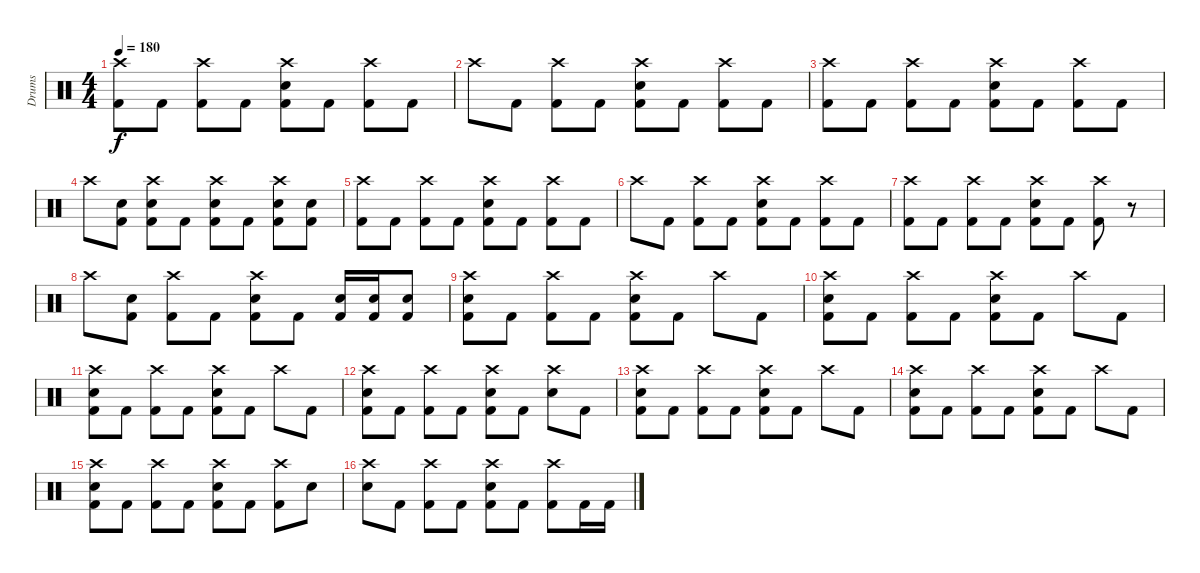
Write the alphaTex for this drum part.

\track ("Drums" "Drums") {instrument percussion}
\staff {score}
\articulation defaults
\ts (4 4)
\tempo 180
\clef neutral
\ks c
("Crash high (hit)" "Kick (hit) 2").8{dy f} "Kick (hit) 2".8 ("Crash high (hit)" "Kick (hit) 2").8 "Kick (hit) 2".8 ("Crash high (hit)" "Electric Snare (hit)" "Kick (hit) 2").8 "Kick (hit) 2".8 ("Crash high (hit)" "Kick (hit) 2").8 "Kick (hit) 2".8 |
"Crash high (hit)".8 "Kick (hit) 2".8 ("Crash high (hit)" "Kick (hit) 2").8 "Kick (hit) 2".8 ("Crash high (hit)" "Electric Snare (hit)" "Kick (hit) 2").8 "Kick (hit) 2".8 ("Crash high (hit)" "Kick (hit) 2").8 "Kick (hit) 2".8 |
("Crash high (hit)" "Kick (hit) 2").8 "Kick (hit) 2".8 ("Crash high (hit)" "Kick (hit) 2").8 "Kick (hit) 2".8 ("Crash high (hit)" "Electric Snare (hit)" "Kick (hit) 2").8 "Kick (hit) 2".8 ("Crash high (hit)" "Kick (hit) 2").8 "Kick (hit) 2".8 |
"Crash high (hit)".8 ("Electric Snare (hit)" "Kick (hit) 2").8 ("Crash high (hit)" "Electric Snare (hit)" "Kick (hit) 2").8 "Kick (hit) 2".8 ("Crash high (hit)" "Electric Snare (hit)" "Kick (hit) 2").8 "Kick (hit) 2".8 ("Crash high (hit)" "Electric Snare (hit)" "Kick (hit) 2").8 ("Electric Snare (hit)" "Kick (hit) 2").8 |
("Crash high (hit)" "Kick (hit) 2").8 "Kick (hit) 2".8 ("Crash high (hit)" "Kick (hit) 2").8 "Kick (hit) 2".8 ("Crash high (hit)" "Electric Snare (hit)" "Kick (hit) 2").8 "Kick (hit) 2".8 ("Crash high (hit)" "Kick (hit) 2").8 "Kick (hit) 2".8 |
"Crash high (hit)".8 "Kick (hit) 2".8 ("Crash high (hit)" "Kick (hit) 2").8 "Kick (hit) 2".8 ("Crash high (hit)" "Electric Snare (hit)" "Kick (hit) 2").8 "Kick (hit) 2".8 ("Crash high (hit)" "Kick (hit) 2").8 "Kick (hit) 2".8 |
("Crash high (hit)" "Kick (hit) 2").8 "Kick (hit) 2".8 ("Crash high (hit)" "Kick (hit) 2").8 "Kick (hit) 2".8 ("Crash high (hit)" "Electric Snare (hit)" "Kick (hit) 2").8 "Kick (hit) 2".8 ("Crash high (hit)" "Kick (hit) 2").8 r.8 |
"Crash high (hit)".8 ("Electric Snare (hit)" "Kick (hit) 2").8 ("Crash high (hit)" "Kick (hit) 2").8 "Kick (hit) 2".8 ("Crash high (hit)" "Electric Snare (hit)" "Kick (hit) 2").8 "Kick (hit) 2".8 ("Electric Snare (hit)" "Kick (hit) 2").16 ("Electric Snare (hit)" "Kick (hit) 2").16 ("Electric Snare (hit)" "Kick (hit) 2").8 |
("Crash high (hit)" "Electric Snare (hit)" "Kick (hit) 2").8 "Kick (hit) 2".8 ("Crash high (hit)" "Kick (hit) 2").8 "Kick (hit) 2".8 ("Crash high (hit)" "Electric Snare (hit)" "Kick (hit) 2").8 "Kick (hit) 2".8 "Crash high (hit)".8 "Kick (hit) 2".8 |
("Crash high (hit)" "Electric Snare (hit)" "Kick (hit) 2").8 "Kick (hit) 2".8 ("Crash high (hit)" "Kick (hit) 2").8 "Kick (hit) 2".8 ("Crash high (hit)" "Electric Snare (hit)" "Kick (hit) 2").8 "Kick (hit) 2".8 "Crash high (hit)".8 "Kick (hit) 2".8 |
("Crash high (hit)" "Electric Snare (hit)" "Kick (hit) 2").8 "Kick (hit) 2".8 ("Crash high (hit)" "Kick (hit) 2").8 "Kick (hit) 2".8 ("Crash high (hit)" "Electric Snare (hit)" "Kick (hit) 2").8 "Kick (hit) 2".8 "Crash high (hit)".8 "Kick (hit) 2".8 |
("Crash high (hit)" "Electric Snare (hit)" "Kick (hit) 2").8 "Kick (hit) 2".8 ("Crash high (hit)" "Kick (hit) 2").8 "Kick (hit) 2".8 ("Crash high (hit)" "Electric Snare (hit)" "Kick (hit) 2").8 "Kick (hit) 2".8 ("Crash high (hit)" "Electric Snare (hit)").8 "Kick (hit) 2".8 |
("Crash high (hit)" "Electric Snare (hit)" "Kick (hit) 2").8 "Kick (hit) 2".8 ("Crash high (hit)" "Kick (hit) 2").8 "Kick (hit) 2".8 ("Crash high (hit)" "Electric Snare (hit)" "Kick (hit) 2").8 "Kick (hit) 2".8 "Crash high (hit)".8 "Kick (hit) 2".8 |
("Crash high (hit)" "Electric Snare (hit)" "Kick (hit) 2").8 "Kick (hit) 2".8 ("Crash high (hit)" "Kick (hit) 2").8 "Kick (hit) 2".8 ("Crash high (hit)" "Electric Snare (hit)" "Kick (hit) 2").8 "Kick (hit) 2".8 "Crash high (hit)".8 "Kick (hit) 2".8 |
("Crash high (hit)" "Electric Snare (hit)" "Kick (hit) 2").8 "Kick (hit) 2".8 ("Crash high (hit)" "Kick (hit) 2").8 "Kick (hit) 2".8 ("Crash high (hit)" "Electric Snare (hit)" "Kick (hit) 2").8 "Kick (hit) 2".8 ("Crash high (hit)" "Kick (hit) 2").8 "Electric Snare (hit)".8 |
("Crash high (hit)" "Electric Snare (hit)").8 "Kick (hit) 2".8 ("Crash high (hit)" "Kick (hit) 2").8 "Kick (hit) 2".8 ("Crash high (hit)" "Electric Snare (hit)" "Kick (hit) 2").8 "Kick (hit) 2".8 ("Crash high (hit)" "Kick (hit) 2").8 "Kick (hit) 2".16 "Kick (hit) 2".16
